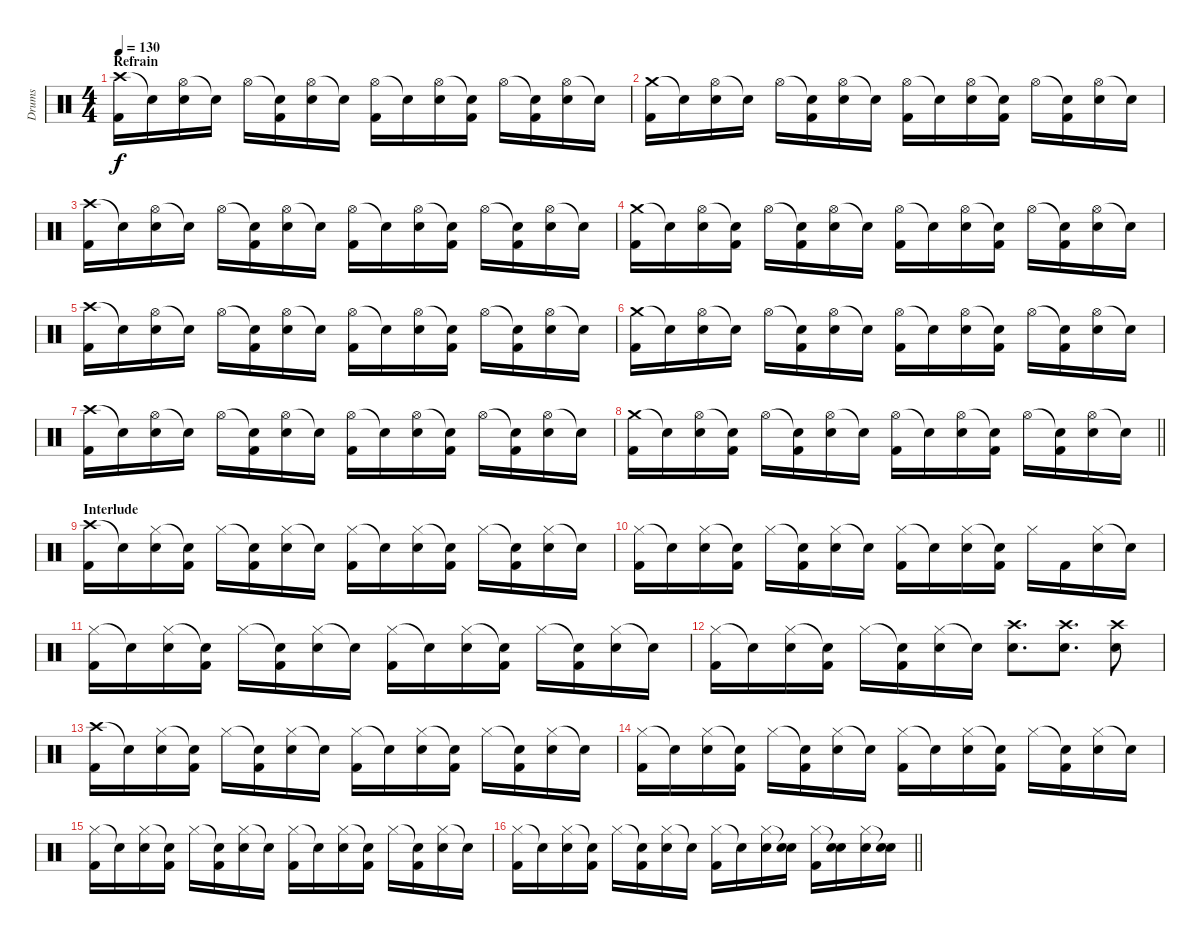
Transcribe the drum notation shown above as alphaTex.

\track ("Drums" "Drums") {instrument percussion}
\staff {score}
\articulation defaults
\ts (4 4)
\section ("" "Refrain")
\tempo 130
\clef neutral
\ks c
("Crash high (hit)" "Kick (hit) 2").16{dy f} "Snare (hit)"{t}.16 ("Hi-Hat (open)" "Snare (hit) 2").16 "Snare (hit)"{t}.16 "Hi-Hat (open)".16 ("Snare (hit)"{t} "Kick (hit) 2").16 ("Hi-Hat (open)" "Snare (hit) 2").16 "Snare (hit)"{t}.16 ("Hi-Hat (open)" "Kick (hit) 2").16 "Snare (hit)"{t}.16 ("Hi-Hat (open)" "Snare (hit) 2").16 ("Snare (hit)"{t} "Kick (hit) 2").16 "Hi-Hat (open)".16 ("Snare (hit)"{t} "Kick (hit) 2").16 ("Hi-Hat (open)" "Snare (hit) 2").16 "Snare (hit)"{t}.16 |
("Crash medium (hit)" "Kick (hit) 2").16 "Snare (hit)"{t}.16 ("Hi-Hat (open)" "Snare (hit) 2").16 "Snare (hit)"{t}.16 "Hi-Hat (open)".16 ("Snare (hit)"{t} "Kick (hit) 2").16 ("Hi-Hat (open)" "Snare (hit) 2").16 "Snare (hit)"{t}.16 ("Hi-Hat (open)" "Kick (hit) 2").16 "Snare (hit)"{t}.16 ("Hi-Hat (open)" "Snare (hit) 2").16 ("Snare (hit)"{t} "Kick (hit) 2").16 "Hi-Hat (open)".16 ("Snare (hit)"{t} "Kick (hit) 2").16 ("Hi-Hat (open)" "Snare (hit) 2").16 "Snare (hit)"{t}.16 |
("Crash high (hit)" "Kick (hit) 2").16 "Snare (hit)"{t}.16 ("Hi-Hat (open)" "Snare (hit) 2").16 "Snare (hit)"{t}.16 "Hi-Hat (open)".16 ("Snare (hit)"{t} "Kick (hit) 2").16 ("Hi-Hat (open)" "Snare (hit) 2").16 "Snare (hit)"{t}.16 ("Hi-Hat (open)" "Kick (hit) 2").16 "Snare (hit)"{t}.16 ("Hi-Hat (open)" "Snare (hit) 2").16 ("Snare (hit)"{t} "Kick (hit) 2").16 "Hi-Hat (open)".16 ("Snare (hit)"{t} "Kick (hit) 2").16 ("Hi-Hat (open)" "Snare (hit) 2").16 "Snare (hit)"{t}.16 |
("Crash medium (hit)" "Kick (hit) 2").16 "Snare (hit)"{t}.16 ("Hi-Hat (open)" "Snare (hit) 2").16 ("Snare (hit)"{t} "Kick (hit) 2").16 "Hi-Hat (open)".16 ("Snare (hit)"{t} "Kick (hit) 2").16 ("Hi-Hat (open)" "Snare (hit) 2").16 "Snare (hit)"{t}.16 ("Hi-Hat (open)" "Kick (hit) 2").16 "Snare (hit)"{t}.16 ("Hi-Hat (open)" "Snare (hit) 2").16 ("Snare (hit)"{t} "Kick (hit) 2").16 "Hi-Hat (open)".16 ("Snare (hit)"{t} "Kick (hit) 2").16 ("Hi-Hat (open)" "Snare (hit) 2").16 "Snare (hit)"{t}.16 |
("Crash high (hit)" "Kick (hit) 2").16 "Snare (hit)"{t}.16 ("Hi-Hat (open)" "Snare (hit) 2").16 "Snare (hit)"{t}.16 "Hi-Hat (open)".16 ("Snare (hit)"{t} "Kick (hit) 2").16 ("Hi-Hat (open)" "Snare (hit) 2").16 "Snare (hit)"{t}.16 ("Hi-Hat (open)" "Kick (hit) 2").16 "Snare (hit)"{t}.16 ("Hi-Hat (open)" "Snare (hit) 2").16 ("Snare (hit)"{t} "Kick (hit) 2").16 "Hi-Hat (open)".16 ("Snare (hit)"{t} "Kick (hit) 2").16 ("Hi-Hat (open)" "Snare (hit) 2").16 "Snare (hit)"{t}.16 |
("Crash medium (hit)" "Kick (hit) 2").16 "Snare (hit)"{t}.16 ("Hi-Hat (open)" "Snare (hit) 2").16 "Snare (hit)"{t}.16 "Hi-Hat (open)".16 ("Snare (hit)"{t} "Kick (hit) 2").16 ("Hi-Hat (open)" "Snare (hit) 2").16 "Snare (hit)"{t}.16 ("Hi-Hat (open)" "Kick (hit) 2").16 "Snare (hit)"{t}.16 ("Hi-Hat (open)" "Snare (hit) 2").16 ("Snare (hit)"{t} "Kick (hit) 2").16 "Hi-Hat (open)".16 ("Snare (hit)"{t} "Kick (hit) 2").16 ("Hi-Hat (open)" "Snare (hit) 2").16 "Snare (hit)"{t}.16 |
("Crash high (hit)" "Kick (hit) 2").16 "Snare (hit)"{t}.16 ("Hi-Hat (open)" "Snare (hit) 2").16 "Snare (hit)"{t}.16 "Hi-Hat (open)".16 ("Snare (hit)"{t} "Kick (hit) 2").16 ("Hi-Hat (open)" "Snare (hit) 2").16 "Snare (hit)"{t}.16 ("Hi-Hat (open)" "Kick (hit) 2").16 "Snare (hit)"{t}.16 ("Hi-Hat (open)" "Snare (hit) 2").16 ("Snare (hit)"{t} "Kick (hit) 2").16 "Hi-Hat (open)".16 ("Snare (hit)"{t} "Kick (hit) 2").16 ("Hi-Hat (open)" "Snare (hit) 2").16 "Snare (hit)"{t}.16 |
\barLineRight lightlight
("Crash medium (hit)" "Kick (hit) 2").16 "Snare (hit)"{t}.16 ("Hi-Hat (open)" "Snare (hit) 2").16 ("Snare (hit)"{t} "Kick (hit) 2").16 "Hi-Hat (open)".16 ("Snare (hit)"{t} "Kick (hit) 2").16 ("Hi-Hat (open)" "Snare (hit) 2").16 "Snare (hit)"{t}.16 ("Hi-Hat (open)" "Kick (hit) 2").16 "Snare (hit)"{t}.16 ("Hi-Hat (open)" "Snare (hit) 2").16 ("Snare (hit)"{t} "Kick (hit) 2").16 "Hi-Hat (open)".16 ("Snare (hit)"{t} "Kick (hit) 2").16 ("Hi-Hat (open)" "Snare (hit) 2").16 "Snare (hit)"{t}.16 |
\section ("" "Interlude")
("Crash high (hit)" "Kick (hit) 2").16 "Snare (hit)"{t}.16 ("Hi-Hat (closed)" "Snare (hit) 2").16 ("Snare (hit)"{t} "Kick (hit) 2").16 "Hi-Hat (closed)".16 ("Snare (hit)"{t} "Kick (hit) 2").16 ("Hi-Hat (closed)" "Snare (hit) 2").16 "Snare (hit)"{t}.16 ("Hi-Hat (closed)" "Kick (hit) 2").16 "Snare (hit)"{t}.16 ("Hi-Hat (closed)" "Snare (hit) 2").16 ("Snare (hit)"{t} "Kick (hit) 2").16 "Hi-Hat (closed)".16 ("Snare (hit)"{t} "Kick (hit) 2").16 ("Hi-Hat (closed)" "Snare (hit) 2").16 "Snare (hit)"{t}.16 |
("Hi-Hat (closed)" "Kick (hit) 2").16 "Snare (hit)"{t}.16 ("Hi-Hat (closed)" "Snare (hit) 2").16 ("Snare (hit)"{t} "Kick (hit) 2").16 "Hi-Hat (closed)".16 ("Snare (hit)"{t} "Kick (hit) 2").16 ("Hi-Hat (closed)" "Snare (hit) 2").16 "Snare (hit)"{t}.16 ("Hi-Hat (closed)" "Kick (hit) 2").16 "Snare (hit)"{t}.16 ("Hi-Hat (closed)" "Snare (hit) 2").16 ("Snare (hit)"{t} "Kick (hit) 2").16 "Hi-Hat (closed)".16 "Kick (hit) 2".16 ("Hi-Hat (closed)" "Snare (hit) 2").16 "Snare (hit)"{t}.16 |
("Hi-Hat (closed)" "Kick (hit) 2").16 "Snare (hit)"{t}.16 ("Hi-Hat (closed)" "Snare (hit) 2").16 ("Snare (hit)"{t} "Kick (hit) 2").16 "Hi-Hat (closed)".16 ("Snare (hit)"{t} "Kick (hit) 2").16 ("Hi-Hat (closed)" "Snare (hit) 2").16 "Snare (hit)"{t}.16 ("Hi-Hat (closed)" "Kick (hit) 2").16 "Snare (hit)"{t}.16 ("Hi-Hat (closed)" "Snare (hit) 2").16 ("Snare (hit)"{t} "Kick (hit) 2").16 "Hi-Hat (closed)".16 ("Snare (hit)"{t} "Kick (hit) 2").16 ("Hi-Hat (closed)" "Snare (hit) 2").16 "Snare (hit)"{t}.16 |
("Hi-Hat (closed)" "Kick (hit) 2").16 "Snare (hit)"{t}.16 ("Hi-Hat (closed)" "Snare (hit) 2").16 ("Snare (hit)"{t} "Kick (hit) 2").16 "Hi-Hat (closed)".16 ("Snare (hit)"{t} "Kick (hit) 2").16 ("Hi-Hat (closed)" "Snare (hit) 2").16 "Snare (hit)"{t}.16 ("Crash high (hit)" "Snare (hit) 2").8{d} ("Crash high (hit)" "Snare (hit) 2").8{d} ("Crash high (hit)" "Snare (hit) 2").8 |
("Crash high (hit)" "Kick (hit) 2").16 "Snare (hit)"{t}.16 ("Hi-Hat (closed)" "Snare (hit) 2").16 ("Snare (hit)"{t} "Kick (hit) 2").16 "Hi-Hat (closed)".16 ("Snare (hit)"{t} "Kick (hit) 2").16 ("Hi-Hat (closed)" "Snare (hit) 2").16 "Snare (hit)"{t}.16 ("Hi-Hat (closed)" "Kick (hit) 2").16 "Snare (hit)"{t}.16 ("Hi-Hat (closed)" "Snare (hit) 2").16 ("Snare (hit)"{t} "Kick (hit) 2").16 "Hi-Hat (closed)".16 ("Snare (hit)"{t} "Kick (hit) 2").16 ("Hi-Hat (closed)" "Snare (hit) 2").16 "Snare (hit)"{t}.16 |
("Hi-Hat (closed)" "Kick (hit) 2").16 "Snare (hit)"{t}.16 ("Hi-Hat (closed)" "Snare (hit) 2").16 ("Snare (hit)"{t} "Kick (hit) 2").16 "Hi-Hat (closed)".16 ("Snare (hit)"{t} "Kick (hit) 2").16 ("Hi-Hat (closed)" "Snare (hit) 2").16 "Snare (hit)"{t}.16 ("Hi-Hat (closed)" "Kick (hit) 2").16 "Snare (hit)"{t}.16 ("Hi-Hat (closed)" "Snare (hit) 2").16 ("Snare (hit)"{t} "Kick (hit) 2").16 "Hi-Hat (closed)".16 ("Snare (hit)"{t} "Kick (hit) 2").16 ("Hi-Hat (closed)" "Snare (hit) 2").16 "Snare (hit)"{t}.16 |
("Hi-Hat (closed)" "Kick (hit) 2").16 "Snare (hit)"{t}.16 ("Hi-Hat (closed)" "Snare (hit) 2").16 ("Snare (hit)"{t} "Kick (hit) 2").16 "Hi-Hat (closed)".16 ("Snare (hit)"{t} "Kick (hit) 2").16 ("Hi-Hat (closed)" "Snare (hit) 2").16 "Snare (hit)"{t}.16 ("Hi-Hat (closed)" "Kick (hit) 2").16 "Snare (hit)"{t}.16 ("Hi-Hat (closed)" "Snare (hit) 2").16 ("Snare (hit)"{t} "Kick (hit) 2").16 "Hi-Hat (closed)".16 ("Snare (hit)"{t} "Kick (hit) 2").16 ("Hi-Hat (closed)" "Snare (hit) 2").16 "Snare (hit)"{t}.16 |
\barLineRight lightlight
("Hi-Hat (closed)" "Kick (hit) 2").16 "Snare (hit)"{t}.16 ("Hi-Hat (closed)" "Snare (hit) 2").16 ("Snare (hit)"{t} "Kick (hit) 2").16 "Hi-Hat (closed)".16 ("Snare (hit)"{t} "Kick (hit) 2").16 ("Hi-Hat (closed)" "Snare (hit) 2").16 "Snare (hit)"{t}.16 ("Hi-Hat (closed)" "Kick (hit) 2").16 "Snare (hit)"{t}.16 ("Hi-Hat (closed)" "Snare (hit) 2").16 ("Snare (hit)"{t} "Snare (hit) 2").16 ("Hi-Hat (closed)" "Kick (hit) 2").16 ("Snare (hit)"{t} "Snare (hit) 2").16 ("Hi-Hat (closed)" "Snare (hit) 2").16 ("Snare (hit)"{t} "Snare (hit) 2").16
